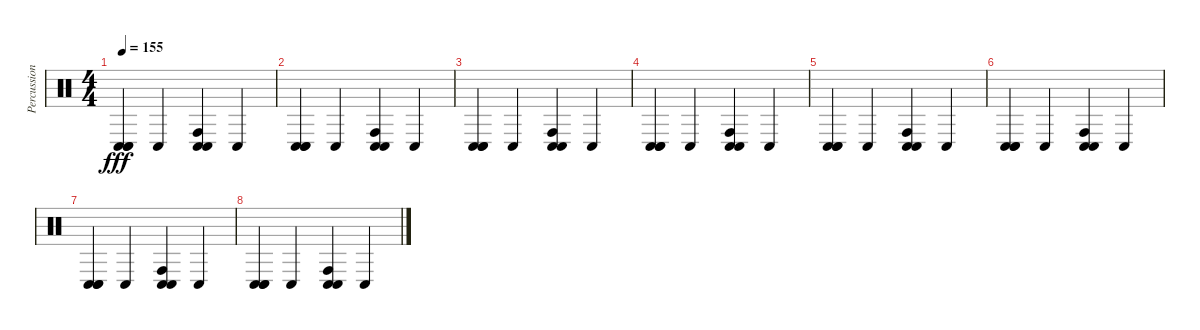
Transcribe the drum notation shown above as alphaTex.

\track ("Percussion" "Percussion") {instrument percussion}
\staff {score}
\articulation defaults
\ts (4 4)
\tempo 155
\clef neutral
\ks c
("Conga low (hit)" "Conga low (hit)" "Conga low (hit)").4{dy fff} "Conga low (hit)".4 ("Conga high (hit)" "Conga low (hit)" "Conga low (hit)").4 "Conga low (hit)".4 |
("Conga low (hit)" "Conga low (hit)" "Conga low (hit)").4 "Conga low (hit)".4 ("Conga high (hit)" "Conga low (hit)" "Conga low (hit)").4 "Conga low (hit)".4 |
("Conga low (hit)" "Conga low (hit)" "Conga low (hit)").4 "Conga low (hit)".4 ("Conga high (hit)" "Conga low (hit)" "Conga low (hit)").4 "Conga low (hit)".4 |
("Conga low (hit)" "Conga low (hit)" "Conga low (hit)").4 "Conga low (hit)".4 ("Conga high (hit)" "Conga low (hit)" "Conga low (hit)").4 "Conga low (hit)".4 |
("Conga low (hit)" "Conga low (hit)" "Conga low (hit)").4 "Conga low (hit)".4 ("Conga high (hit)" "Conga low (hit)" "Conga low (hit)").4 "Conga low (hit)".4 |
("Conga low (hit)" "Conga low (hit)" "Conga low (hit)").4 "Conga low (hit)".4 ("Conga high (hit)" "Conga low (hit)" "Conga low (hit)").4 "Conga low (hit)".4 |
("Conga low (hit)" "Conga low (hit)" "Conga low (hit)").4 "Conga low (hit)".4 ("Conga high (hit)" "Conga low (hit)" "Conga low (hit)").4 "Conga low (hit)".4 |
("Conga low (hit)" "Conga low (hit)" "Conga low (hit)").4 "Conga low (hit)".4 ("Conga high (hit)" "Conga low (hit)" "Conga low (hit)").4 "Conga low (hit)".4
